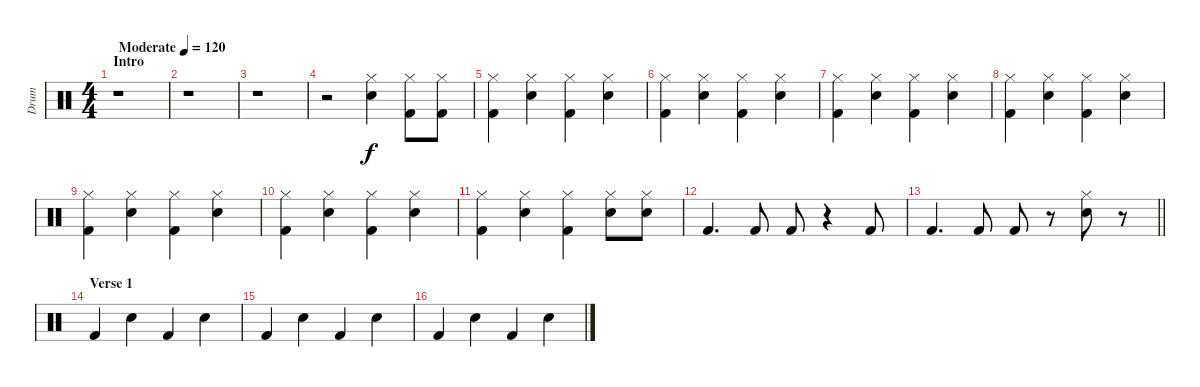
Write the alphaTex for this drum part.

\track ("Drum" "Drum") {instrument percussion}
\staff {score}
\articulation defaults
\ts (4 4)
\section ("" "Intro")
\tempo (120 "Moderate")
\clef neutral
\ks c
r.1{dy f} |
r.1 |
r.1 |
r.2 ("Hi-Hat (closed)" "Electric Snare (hit)").4 ("Hi-Hat (closed)" "Kick (hit) 2").8 ("Hi-Hat (closed)" "Kick (hit) 2").8 |
("Hi-Hat (closed)" "Kick (hit) 2").4 ("Hi-Hat (closed)" "Electric Snare (hit)").4 ("Hi-Hat (closed)" "Kick (hit) 2").4 ("Hi-Hat (closed)" "Electric Snare (hit)").4 |
("Hi-Hat (closed)" "Kick (hit) 2").4 ("Hi-Hat (closed)" "Electric Snare (hit)").4 ("Hi-Hat (closed)" "Kick (hit) 2").4 ("Hi-Hat (closed)" "Electric Snare (hit)").4 |
("Hi-Hat (closed)" "Kick (hit) 2").4 ("Hi-Hat (closed)" "Electric Snare (hit)").4 ("Hi-Hat (closed)" "Kick (hit) 2").4 ("Hi-Hat (closed)" "Electric Snare (hit)").4 |
("Hi-Hat (closed)" "Kick (hit) 2").4 ("Hi-Hat (closed)" "Electric Snare (hit)").4 ("Hi-Hat (closed)" "Kick (hit) 2").4 ("Hi-Hat (closed)" "Electric Snare (hit)").4 |
("Hi-Hat (closed)" "Kick (hit) 2").4 ("Hi-Hat (closed)" "Electric Snare (hit)").4 ("Hi-Hat (closed)" "Kick (hit) 2").4 ("Hi-Hat (closed)" "Electric Snare (hit)").4 |
("Hi-Hat (closed)" "Kick (hit) 2").4 ("Hi-Hat (closed)" "Electric Snare (hit)").4 ("Hi-Hat (closed)" "Kick (hit) 2").4 ("Hi-Hat (closed)" "Electric Snare (hit)").4 |
("Hi-Hat (closed)" "Kick (hit) 2").4 ("Hi-Hat (closed)" "Electric Snare (hit)").4 ("Hi-Hat (closed)" "Kick (hit) 2").4 ("Hi-Hat (closed)" "Electric Snare (hit)").8 ("Hi-Hat (closed)" "Electric Snare (hit)").8 |
"Kick (hit) 2".4{d} "Kick (hit) 2".8 "Kick (hit) 2".8 r.4 "Kick (hit) 2".8 |
\barLineRight lightlight "Kick (hit) 2".4{d} "Kick (hit) 2".8 "Kick (hit) 2".8
r.8 ("Hi-Hat (closed)" "Electric Snare (hit)").8 r.8 |
\section ("" "Verse 1")
"Kick (hit) 2".4 "Electric Snare (hit)".4 "Kick (hit) 2".4 "Electric Snare (hit)".4 |
"Kick (hit) 2".4 "Electric Snare (hit)".4 "Kick (hit) 2".4 "Electric Snare (hit)".4 |
"Kick (hit) 2".4 "Electric Snare (hit)".4 "Kick (hit) 2".4 "Electric Snare (hit)".4
